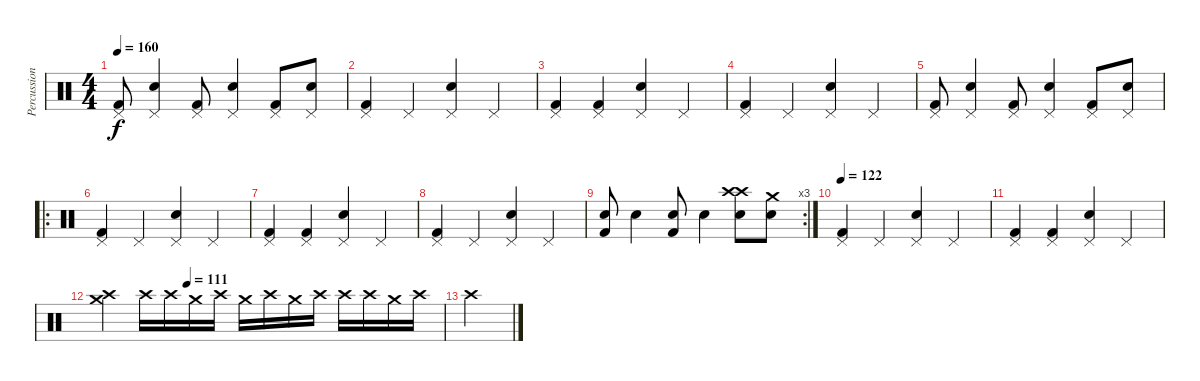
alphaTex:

\track ("Percussion" "Percussion") {instrument percussion}
\staff {score}
\articulation defaults
\ts (4 4)
\tempo 160
\clef neutral
\ks c
("Kick (hit) 2" "Pedal Hi-Hat (hit)").8{dy f} ("Snare (hit) 2" "Pedal Hi-Hat (hit)").4 ("Kick (hit) 2" "Pedal Hi-Hat (hit)").8 ("Snare (hit) 2" "Pedal Hi-Hat (hit)").4 ("Kick (hit) 2" "Pedal Hi-Hat (hit)").8 ("Snare (hit) 2" "Pedal Hi-Hat (hit)").8 |
("Kick (hit) 2" "Pedal Hi-Hat (hit)").4 "Pedal Hi-Hat (hit)".4 ("Snare (hit) 2" "Pedal Hi-Hat (hit)").4 "Pedal Hi-Hat (hit)".4 |
("Kick (hit) 2" "Pedal Hi-Hat (hit)").4 ("Kick (hit) 2" "Pedal Hi-Hat (hit)").4 ("Snare (hit) 2" "Pedal Hi-Hat (hit)").4 "Pedal Hi-Hat (hit)".4 |
("Kick (hit) 2" "Pedal Hi-Hat (hit)").4 "Pedal Hi-Hat (hit)".4 ("Snare (hit) 2" "Pedal Hi-Hat (hit)").4 "Pedal Hi-Hat (hit)".4 |
("Kick (hit) 2" "Pedal Hi-Hat (hit)").8 ("Snare (hit) 2" "Pedal Hi-Hat (hit)").4 ("Kick (hit) 2" "Pedal Hi-Hat (hit)").8 ("Snare (hit) 2" "Pedal Hi-Hat (hit)").4 ("Kick (hit) 2" "Pedal Hi-Hat (hit)").8 ("Snare (hit) 2" "Pedal Hi-Hat (hit)").8 |
\ro
("Kick (hit) 2" "Pedal Hi-Hat (hit)").4 "Pedal Hi-Hat (hit)".4 ("Snare (hit) 2" "Pedal Hi-Hat (hit)").4 "Pedal Hi-Hat (hit)".4 |
("Kick (hit) 2" "Pedal Hi-Hat (hit)").4 ("Kick (hit) 2" "Pedal Hi-Hat (hit)").4 ("Snare (hit) 2" "Pedal Hi-Hat (hit)").4 "Pedal Hi-Hat (hit)".4 |
("Kick (hit) 2" "Pedal Hi-Hat (hit)").4 "Pedal Hi-Hat (hit)".4 ("Snare (hit) 2" "Pedal Hi-Hat (hit)").4 "Pedal Hi-Hat (hit)".4 |
\rc 3
("Snare (hit) 2" "Kick (hit) 2").8 "Snare (hit) 2".4 ("Snare (hit) 2" "Kick (hit) 2").8 "Snare (hit) 2".4 ("Crash high (hit)" "Snare (hit) 2" "Crash high (hit)").8 ("Snare (hit) 2" "Crash medium (hit)").8 |
\tempo 122
("Kick (hit) 2" "Pedal Hi-Hat (hit)").4 "Pedal Hi-Hat (hit)".4 ("Snare (hit) 2" "Pedal Hi-Hat (hit)").4 "Pedal Hi-Hat (hit)".4 |
("Kick (hit) 2" "Pedal Hi-Hat (hit)").4 ("Kick (hit) 2" "Pedal Hi-Hat (hit)").4 ("Snare (hit) 2" "Pedal Hi-Hat (hit)").4 "Pedal Hi-Hat (hit)".4 |
\tempo (111 0.25)
("Crash high (hit)" "Crash medium (hit)").4 "Crash high (hit)".16{volume 5} "Crash high (hit)".16 "Crash medium (hit)".16 "Crash high (hit)".16 "Crash medium (hit)".16 "Crash high (hit)".16 "Crash medium (hit)".16 "Crash high (hit)".16 "Crash high (hit)".16 "Crash high (hit)".16 "Crash medium (hit)".16 "Crash high (hit)".16 |
"Crash high (hit)".2{volume 16}
